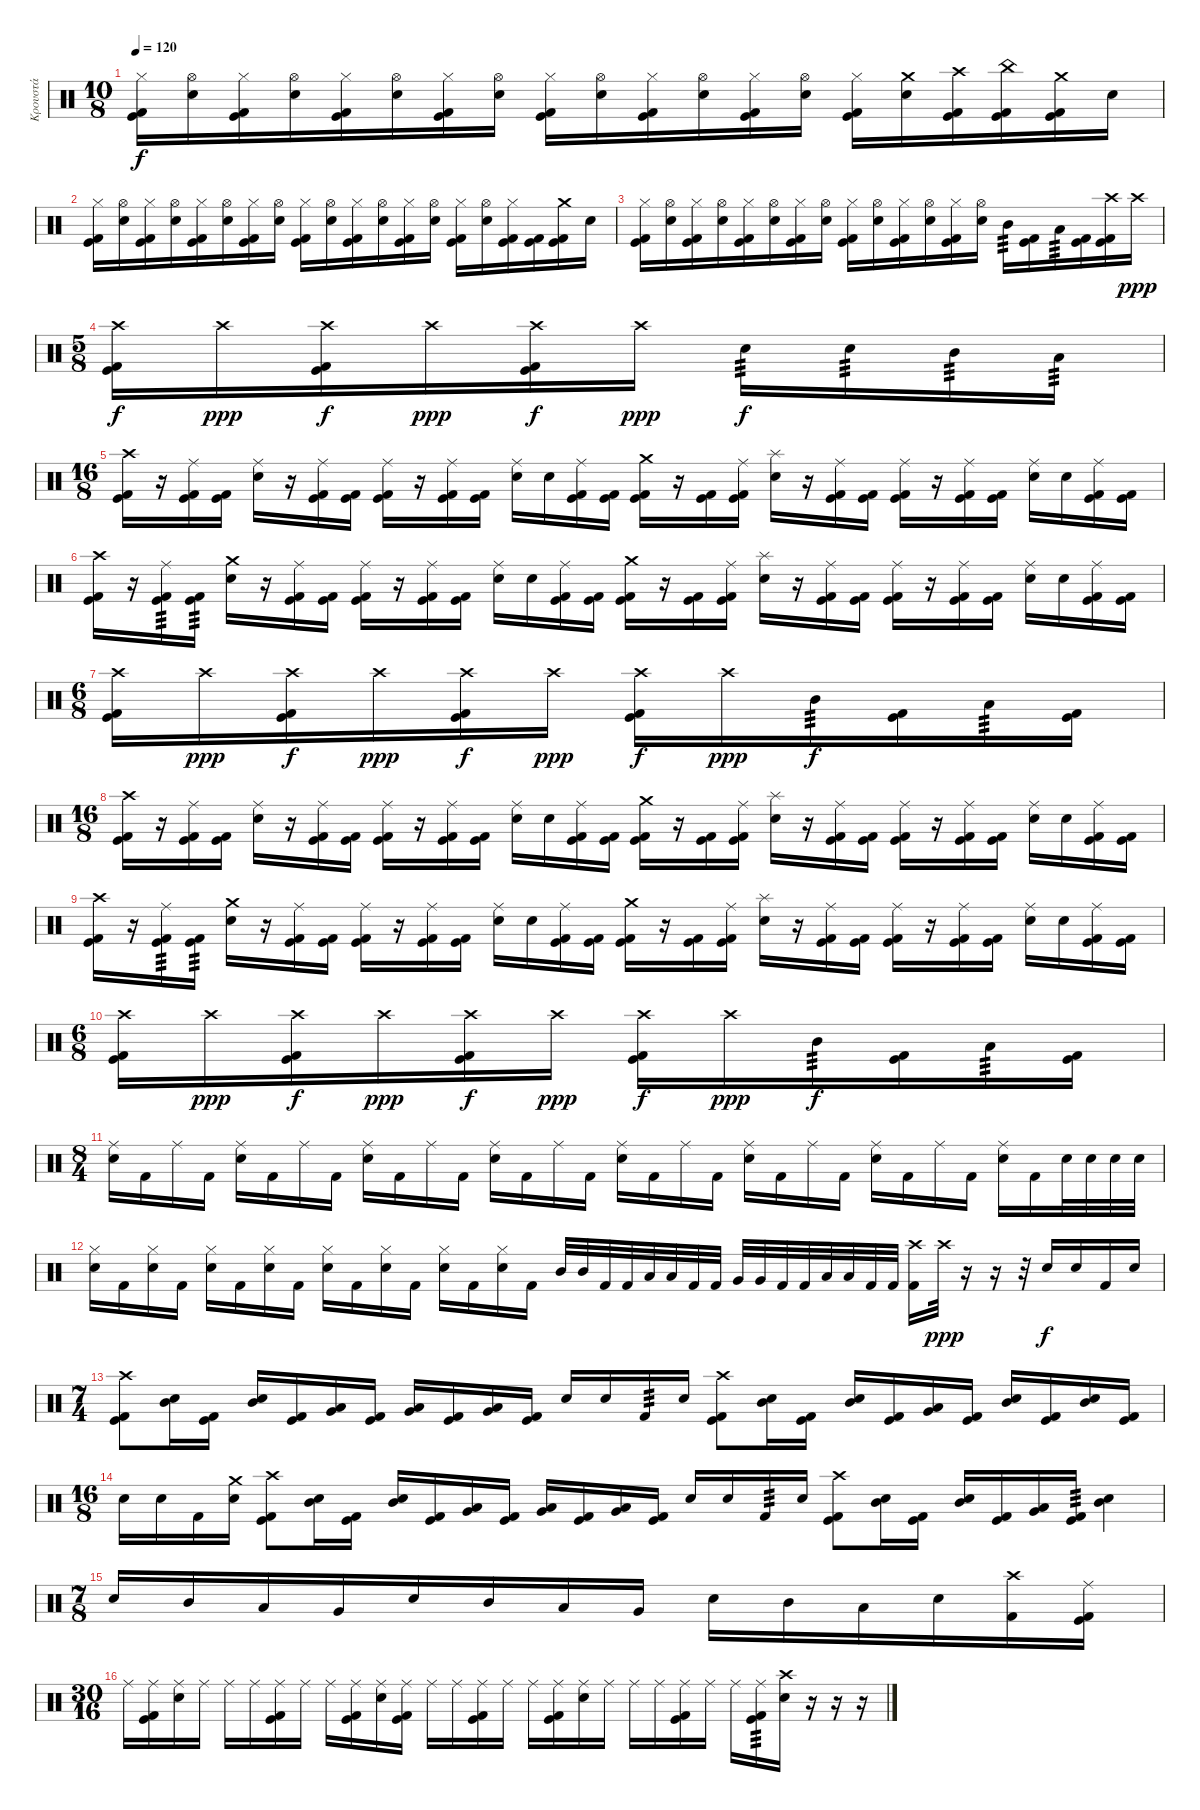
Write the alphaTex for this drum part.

\track ("Κρουστά" "Κρουστά") {instrument percussion}
\staff {score}
\articulation defaults
\ts (10 8)
\tempo 120
\clef neutral
\ks c
("Hi-Hat (closed)" "Kick (hit)" "Kick (hit) 2").16{dy f} ("Hi-Hat (open)" "Snare (hit) 2").16 ("Hi-Hat (closed)" "Kick (hit)" "Kick (hit) 2").16 ("Hi-Hat (open)" "Snare (hit) 2").16 ("Hi-Hat (closed)" "Kick (hit)" "Kick (hit) 2").16 ("Hi-Hat (open)" "Snare (hit) 2").16 ("Hi-Hat (closed)" "Kick (hit)" "Kick (hit) 2").16 ("Hi-Hat (open)" "Snare (hit) 2").16 ("Hi-Hat (closed)" "Kick (hit)" "Kick (hit) 2").16 ("Hi-Hat (open)" "Snare (hit) 2").16 ("Hi-Hat (closed)" "Kick (hit)" "Kick (hit) 2").16 ("Hi-Hat (open)" "Snare (hit) 2").16 ("Hi-Hat (closed)" "Kick (hit)" "Kick (hit) 2").16 ("Hi-Hat (open)" "Snare (hit) 2").16 ("Hi-Hat (closed)" "Kick (hit)" "Kick (hit) 2").16 ("Crash medium (hit)" "Snare (hit) 2").16 ("Crash high (hit)" "Kick (hit)" "Kick (hit) 2").16 ("China (hit)" "Kick (hit)" "Kick (hit) 2").16 ("Crash medium (hit)" "Kick (hit)" "Kick (hit) 2").16 "Snare (hit) 2".16 |
("Hi-Hat (closed)" "Kick (hit)" "Kick (hit) 2").16 ("Hi-Hat (open)" "Snare (hit) 2").16 ("Hi-Hat (closed)" "Kick (hit)" "Kick (hit) 2").16 ("Hi-Hat (open)" "Snare (hit) 2").16 ("Hi-Hat (closed)" "Kick (hit)" "Kick (hit) 2").16 ("Hi-Hat (open)" "Snare (hit) 2").16 ("Hi-Hat (closed)" "Kick (hit)" "Kick (hit) 2").16 ("Hi-Hat (open)" "Snare (hit) 2").16 ("Hi-Hat (closed)" "Kick (hit)" "Kick (hit) 2").16 ("Hi-Hat (open)" "Snare (hit) 2").16 ("Hi-Hat (closed)" "Kick (hit)" "Kick (hit) 2").16 ("Hi-Hat (open)" "Snare (hit) 2").16 ("Hi-Hat (closed)" "Kick (hit)" "Kick (hit) 2").16 ("Hi-Hat (open)" "Snare (hit) 2").16 ("Hi-Hat (closed)" "Kick (hit)" "Kick (hit) 2").16 ("Hi-Hat (open)" "Snare (hit) 2").16 ("Hi-Hat (closed)" "Kick (hit)" "Kick (hit) 2").16 ("Kick (hit)" "Kick (hit) 2").16 ("Crash medium (hit)" "Kick (hit)" "Kick (hit) 2").16 "Snare (hit) 2".16 |
("Hi-Hat (closed)" "Kick (hit)" "Kick (hit) 2").16 ("Hi-Hat (open)" "Snare (hit) 2").16 ("Hi-Hat (closed)" "Kick (hit)" "Kick (hit) 2").16 ("Hi-Hat (open)" "Snare (hit) 2").16 ("Hi-Hat (closed)" "Kick (hit)" "Kick (hit) 2").16 ("Hi-Hat (open)" "Snare (hit) 2").16 ("Hi-Hat (closed)" "Kick (hit)" "Kick (hit) 2").16 ("Hi-Hat (open)" "Snare (hit) 2").16 ("Hi-Hat (closed)" "Kick (hit)" "Kick (hit) 2").16 ("Hi-Hat (open)" "Snare (hit) 2").16 ("Hi-Hat (closed)" "Kick (hit)" "Kick (hit) 2").16 ("Hi-Hat (open)" "Snare (hit) 2").16 ("Hi-Hat (closed)" "Kick (hit)" "Kick (hit) 2").16 ("Hi-Hat (open)" "Snare (hit) 2").16 "Mid Tom (hit)".16{tp 3} ("Kick (hit)" "Kick (hit) 2").16 "Low Tom (hit)".16{tp 3} ("Kick (hit)" "Kick (hit) 2").16 ("Crash high (hit)" "Kick (hit)" "Kick (hit) 2").16 "Crash high (hit)".16{dy ppp} |
\ts (5 8)
("Crash high (hit)" "Kick (hit)" "Kick (hit) 2").16{dy f} "Crash high (hit)".16{dy ppp} ("Crash high (hit)" "Kick (hit)" "Kick (hit) 2").16{dy f} "Crash high (hit)".16{dy ppp} ("Crash high (hit)" "Kick (hit)" "Kick (hit) 2").16{dy f} "Crash high (hit)".16{dy ppp} "Snare (hit) 2".16{tp 3 dy f} "Snare (hit) 2".16{tp 3} "Mid Tom (hit)".16{tp 3} "Low Tom (hit)".16{tp 3} |
\ts (16 8)
("Crash high (hit)" "Kick (hit)" "Kick (hit) 2").16 r.16 ("Ride (middle)" "Kick (hit)" "Kick (hit) 2").16 ("Kick (hit)" "Kick (hit) 2").16 ("Ride (middle)" "Snare (hit) 2").16 r.16 ("Ride (middle)" "Kick (hit)" "Kick (hit) 2").16 ("Kick (hit)" "Kick (hit) 2").16 ("Ride (middle)" "Kick (hit)" "Kick (hit) 2").16 r.16 ("Ride (middle)" "Kick (hit)" "Kick (hit) 2").16 ("Kick (hit)" "Kick (hit) 2").16 ("Ride (middle)" "Snare (hit) 2").16 "Snare (hit) 2".16 ("Ride (middle)" "Kick (hit)" "Kick (hit) 2").16 ("Kick (hit)" "Kick (hit) 2").16 ("Crash medium (hit)" "Kick (hit)" "Kick (hit) 2").16 r.16 ("Kick (hit)" "Kick (hit) 2").16 ("Ride (middle)" "Kick (hit)" "Kick (hit) 2").16 ("Splash (hit)" "Snare (hit) 2").16 r.16 ("Ride (middle)" "Kick (hit)" "Kick (hit) 2").16 ("Kick (hit)" "Kick (hit) 2").16 ("Ride (middle)" "Kick (hit)" "Kick (hit) 2").16 r.16 ("Ride (middle)" "Kick (hit)" "Kick (hit) 2").16 ("Kick (hit)" "Kick (hit) 2").16 ("Ride (middle)" "Snare (hit) 2").16 "Snare (hit) 2".16 ("Ride (middle)" "Kick (hit)" "Kick (hit) 2").16 ("Kick (hit)" "Kick (hit) 2").16 |
("Crash high (hit)" "Kick (hit)" "Kick (hit) 2").16 r.16 ("Ride (middle)" "Kick (hit)" "Kick (hit) 2").16{tp 3} ("Kick (hit)" "Kick (hit) 2").16{tp 3} ("Crash medium (hit)" "Snare (hit) 2").16 r.16 ("Ride (middle)" "Kick (hit)" "Kick (hit) 2").16 ("Kick (hit)" "Kick (hit) 2").16 ("Ride (middle)" "Kick (hit)" "Kick (hit) 2").16 r.16 ("Ride (middle)" "Kick (hit)" "Kick (hit) 2").16 ("Kick (hit)" "Kick (hit) 2").16 ("Ride (middle)" "Snare (hit) 2").16 "Snare (hit) 2".16 ("Ride (middle)" "Kick (hit)" "Kick (hit) 2").16 ("Kick (hit)" "Kick (hit) 2").16 ("Crash medium (hit)" "Kick (hit)" "Kick (hit) 2").16 r.16 ("Kick (hit)" "Kick (hit) 2").16 ("Ride (middle)" "Kick (hit)" "Kick (hit) 2").16 ("Splash (hit)" "Snare (hit) 2").16 r.16 ("Ride (middle)" "Kick (hit)" "Kick (hit) 2").16 ("Kick (hit)" "Kick (hit) 2").16 ("Ride (middle)" "Kick (hit)" "Kick (hit) 2").16 r.16 ("Ride (middle)" "Kick (hit)" "Kick (hit) 2").16 ("Kick (hit)" "Kick (hit) 2").16 ("Ride (middle)" "Snare (hit) 2").16 "Snare (hit) 2".16 ("Ride (middle)" "Kick (hit)" "Kick (hit) 2").16 ("Kick (hit)" "Kick (hit) 2").16 |
\ts (6 8)
("Crash high (hit)" "Kick (hit)" "Kick (hit) 2").16 "Crash high (hit)".16{dy ppp} ("Crash high (hit)" "Kick (hit)" "Kick (hit) 2").16{dy f} "Crash high (hit)".16{dy ppp} ("Crash high (hit)" "Kick (hit)" "Kick (hit) 2").16{dy f} "Crash high (hit)".16{dy ppp} ("Crash high (hit)" "Kick (hit)" "Kick (hit) 2").16{dy f} "Crash high (hit)".16{dy ppp} "Mid Tom (hit)".16{tp 3 dy f} ("Kick (hit)" "Kick (hit) 2").16 "Low Tom (hit)".16{tp 3} ("Kick (hit)" "Kick (hit) 2").16 |
\ts (16 8)
("Crash high (hit)" "Kick (hit)" "Kick (hit) 2").16 r.16 ("Ride (middle)" "Kick (hit)" "Kick (hit) 2").16 ("Kick (hit)" "Kick (hit) 2").16 ("Ride (middle)" "Snare (hit) 2").16 r.16 ("Ride (middle)" "Kick (hit)" "Kick (hit) 2").16 ("Kick (hit)" "Kick (hit) 2").16 ("Ride (middle)" "Kick (hit)" "Kick (hit) 2").16 r.16 ("Ride (middle)" "Kick (hit)" "Kick (hit) 2").16 ("Kick (hit)" "Kick (hit) 2").16 ("Ride (middle)" "Snare (hit) 2").16 "Snare (hit) 2".16 ("Ride (middle)" "Kick (hit)" "Kick (hit) 2").16 ("Kick (hit)" "Kick (hit) 2").16 ("Crash medium (hit)" "Kick (hit)" "Kick (hit) 2").16 r.16 ("Kick (hit)" "Kick (hit) 2").16 ("Ride (middle)" "Kick (hit)" "Kick (hit) 2").16 ("Splash (hit)" "Snare (hit) 2").16 r.16 ("Ride (middle)" "Kick (hit)" "Kick (hit) 2").16 ("Kick (hit)" "Kick (hit) 2").16 ("Ride (middle)" "Kick (hit)" "Kick (hit) 2").16 r.16 ("Ride (middle)" "Kick (hit)" "Kick (hit) 2").16 ("Kick (hit)" "Kick (hit) 2").16 ("Ride (middle)" "Snare (hit) 2").16 "Snare (hit) 2".16 ("Ride (middle)" "Kick (hit)" "Kick (hit) 2").16 ("Kick (hit)" "Kick (hit) 2").16 |
("Crash high (hit)" "Kick (hit)" "Kick (hit) 2").16 r.16 ("Ride (middle)" "Kick (hit)" "Kick (hit) 2").16{tp 3} ("Kick (hit)" "Kick (hit) 2").16{tp 3} ("Crash medium (hit)" "Snare (hit) 2").16 r.16 ("Ride (middle)" "Kick (hit)" "Kick (hit) 2").16 ("Kick (hit)" "Kick (hit) 2").16 ("Ride (middle)" "Kick (hit)" "Kick (hit) 2").16 r.16 ("Ride (middle)" "Kick (hit)" "Kick (hit) 2").16 ("Kick (hit)" "Kick (hit) 2").16 ("Ride (middle)" "Snare (hit) 2").16 "Snare (hit) 2".16 ("Ride (middle)" "Kick (hit)" "Kick (hit) 2").16 ("Kick (hit)" "Kick (hit) 2").16 ("Crash medium (hit)" "Kick (hit)" "Kick (hit) 2").16 r.16 ("Kick (hit)" "Kick (hit) 2").16 ("Ride (middle)" "Kick (hit)" "Kick (hit) 2").16 ("Splash (hit)" "Snare (hit) 2").16 r.16 ("Ride (middle)" "Kick (hit)" "Kick (hit) 2").16 ("Kick (hit)" "Kick (hit) 2").16 ("Ride (middle)" "Kick (hit)" "Kick (hit) 2").16 r.16 ("Ride (middle)" "Kick (hit)" "Kick (hit) 2").16 ("Kick (hit)" "Kick (hit) 2").16 ("Ride (middle)" "Snare (hit) 2").16 "Snare (hit) 2".16 ("Ride (middle)" "Kick (hit)" "Kick (hit) 2").16 ("Kick (hit)" "Kick (hit) 2").16 |
\ts (6 8)
("Crash high (hit)" "Kick (hit)" "Kick (hit) 2").16 "Crash high (hit)".16{dy ppp} ("Crash high (hit)" "Kick (hit)" "Kick (hit) 2").16{dy f} "Crash high (hit)".16{dy ppp} ("Crash high (hit)" "Kick (hit)" "Kick (hit) 2").16{dy f} "Crash high (hit)".16{dy ppp} ("Crash high (hit)" "Kick (hit)" "Kick (hit) 2").16{dy f} "Crash high (hit)".16{dy ppp} "Mid Tom (hit)".16{tp 3 dy f} ("Kick (hit)" "Kick (hit) 2").16 "Low Tom (hit)".16{tp 3} ("Kick (hit)" "Kick (hit) 2").16 |
\ts (8 4)
("Ride (middle)" "Snare (hit) 2").16 "Kick (hit) 2".16 "Ride (middle)".16 "Kick (hit) 2".16 ("Ride (middle)" "Snare (hit) 2").16 "Kick (hit) 2".16 "Ride (middle)".16 "Kick (hit) 2".16 ("Ride (middle)" "Snare (hit) 2").16 "Kick (hit) 2".16 "Ride (middle)".16 "Kick (hit) 2".16 ("Ride (middle)" "Snare (hit) 2").16 "Kick (hit) 2".16 "Ride (middle)".16 "Kick (hit) 2".16 ("Ride (middle)" "Snare (hit) 2").16 "Kick (hit) 2".16 "Ride (middle)".16 "Kick (hit) 2".16 ("Ride (middle)" "Snare (hit) 2").16 "Kick (hit) 2".16 "Ride (middle)".16 "Kick (hit) 2".16 ("Ride (middle)" "Snare (hit) 2").16 "Kick (hit) 2".16 "Ride (middle)".16 "Kick (hit) 2".16 ("Ride (middle)" "Snare (hit) 2").16 "Kick (hit) 2".16 "Snare (hit) 2".32 "Snare (hit) 2".32 "Snare (hit) 2".32 "Snare (hit) 2".32 |
("Hi-Hat (closed)" "Snare (hit) 2").16 "Kick (hit) 2".16 ("Hi-Hat (closed)" "Snare (hit) 2").16 "Kick (hit) 2".16 ("Hi-Hat (closed)" "Snare (hit) 2").16 "Kick (hit) 2".16 ("Hi-Hat (closed)" "Snare (hit) 2").16 "Kick (hit) 2".16 ("Hi-Hat (closed)" "Snare (hit) 2").16 "Kick (hit) 2".16 ("Hi-Hat (closed)" "Snare (hit) 2").16 "Kick (hit) 2".16 ("Hi-Hat (closed)" "Snare (hit) 2").16 "Kick (hit) 2".16 ("Hi-Hat (closed)" "Snare (hit) 2").16 "Kick (hit) 2".16 "Mid Tom (hit)".32 "Mid Tom (hit)".32 "Kick (hit) 2".32 "Kick (hit) 2".32 "Low Tom (hit)".32 "Low Tom (hit)".32 "Kick (hit) 2".32 "Kick (hit) 2".32 "Very Low Tom (hit)".32 "Very Low Tom (hit)".32 "Kick (hit) 2".32 "Kick (hit) 2".32 "Low Floor Tom (hit)".32 "Low Floor Tom (hit)".32 "Kick (hit) 2".32 "Kick (hit) 2".32 ("Crash high (hit)" "Kick (hit) 2").16 "Crash high (hit)".32{dy ppp} r.16 r.16 r.32 "Snare (hit) 2".16{dy f} "Snare (hit) 2".16 "Kick (hit) 2".16 "Snare (hit) 2".16 |
\ts (7 4)
("Crash high (hit)" "Kick (hit)" "Kick (hit) 2").8 ("Mid Tom (hit)" "Snare (hit) 2").16 ("Kick (hit)" "Kick (hit) 2").16 ("Mid Tom (hit)" "Snare (hit) 2").16 ("Kick (hit)" "Kick (hit) 2").16 ("Very Low Tom (hit)" "Low Tom (hit)").16 ("Kick (hit)" "Kick (hit) 2").16 ("Very Low Tom (hit)" "Low Tom (hit)").16 ("Kick (hit)" "Kick (hit) 2").16 ("Very Low Tom (hit)" "Low Tom (hit)").16 ("Kick (hit)" "Kick (hit) 2").16 "Snare (hit) 2".16 "Snare (hit) 2".16 "Kick (hit) 2".16{tp 3} "Snare (hit) 2".16 ("Crash high (hit)" "Kick (hit)" "Kick (hit) 2").8 ("Mid Tom (hit)" "Snare (hit) 2").16 ("Kick (hit)" "Kick (hit) 2").16 ("Mid Tom (hit)" "Snare (hit) 2").16 ("Kick (hit)" "Kick (hit) 2").16 ("Very Low Tom (hit)" "Low Tom (hit)").16 ("Kick (hit)" "Kick (hit) 2").16 ("Mid Tom (hit)" "Snare (hit) 2").16 ("Kick (hit)" "Kick (hit) 2").16 ("Mid Tom (hit)" "Snare (hit) 2").16 ("Kick (hit)" "Kick (hit) 2").16 |
\ts (16 8)
"Snare (hit) 2".16 "Snare (hit) 2".16 "Kick (hit) 2".16 ("Crash medium (hit)" "Snare (hit) 2").16 ("Crash high (hit)" "Kick (hit)" "Kick (hit) 2").8 ("Mid Tom (hit)" "Snare (hit) 2").16 ("Kick (hit)" "Kick (hit) 2").16 ("Mid Tom (hit)" "Snare (hit) 2").16 ("Kick (hit)" "Kick (hit) 2").16 ("Very Low Tom (hit)" "Low Tom (hit)").16 ("Kick (hit)" "Kick (hit) 2").16 ("Very Low Tom (hit)" "Low Tom (hit)").16 ("Kick (hit)" "Kick (hit) 2").16 ("Very Low Tom (hit)" "Low Tom (hit)").16 ("Kick (hit)" "Kick (hit) 2").16 "Snare (hit) 2".16 "Snare (hit) 2".16 "Kick (hit) 2".16{tp 3} "Snare (hit) 2".16 ("Crash high (hit)" "Kick (hit)" "Kick (hit) 2").8 ("Mid Tom (hit)" "Snare (hit) 2").16 ("Kick (hit)" "Kick (hit) 2").16 ("Mid Tom (hit)" "Snare (hit) 2").16 ("Kick (hit)" "Kick (hit) 2").16 ("Very Low Tom (hit)" "Low Tom (hit)").16 ("Kick (hit)" "Kick (hit) 2").16{tp 3} ("Mid Tom (hit)" "Snare (hit) 2").4 |
\ts (7 8)
"Snare (hit) 2".16 "Mid Tom (hit)".16 "Low Tom (hit)".16 "Very Low Tom (hit)".16 "Snare (hit) 2".16 "Mid Tom (hit)".16 "Low Tom (hit)".16 "Very Low Tom (hit)".16 "Snare (hit) 2".16 "Mid Tom (hit)".16 "Low Tom (hit)".16 "Snare (hit) 2".16 ("Crash high (hit)" "Kick (hit) 2").16 ("Ride (middle)" "Kick (hit)" "Kick (hit) 2").16 |
\ts (30 16)
"Ride (middle)".16 ("Ride (middle)" "Kick (hit)" "Kick (hit) 2").16 ("Ride (middle)" "Snare (hit) 2").16 "Ride (middle)".16 "Ride (middle)".16 "Ride (middle)".16 ("Ride (middle)" "Kick (hit)" "Kick (hit) 2").16 "Ride (middle)".16 "Ride (middle)".16 ("Ride (middle)" "Kick (hit)" "Kick (hit) 2").16 ("Ride (middle)" "Snare (hit) 2").16 ("Ride (middle)" "Kick (hit)" "Kick (hit) 2").16 "Ride (middle)".16 "Ride (middle)".16 ("Ride (middle)" "Kick (hit)" "Kick (hit) 2").16 "Ride (middle)".16 "Ride (middle)".16 ("Ride (middle)" "Kick (hit)" "Kick (hit) 2").16 ("Ride (middle)" "Snare (hit) 2").16 "Ride (middle)".16 "Ride (middle)".16 "Ride (middle)".16 ("Ride (middle)" "Kick (hit)" "Kick (hit) 2").16 "Ride (middle)".16 "Ride (middle)".16 ("Ride (middle)" "Kick (hit)" "Kick (hit) 2").16{tp 3} ("Crash high (hit)" "Snare (hit) 2").16 r.16 r.16 r.16
